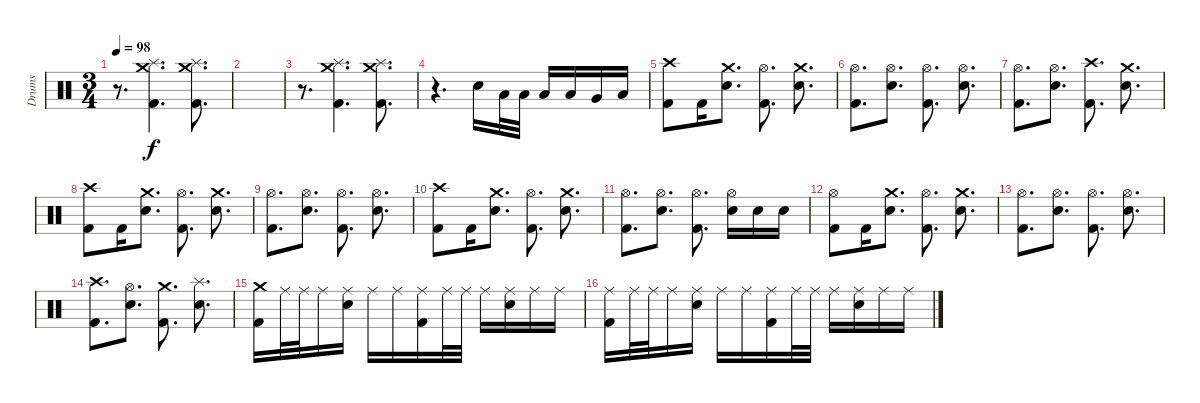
\track ("Drums" "Drums") {instrument percussion}
\staff {score}
\articulation defaults
\ts (3 4)
\tempo 98
\clef neutral
\ks c
r.8{d dy f} ("Crash medium (hit)" "Splash (hit)" "Kick (hit) 2").4{d} ("Crash medium (hit)" "Splash (hit)" "Kick (hit) 2").8{d} |
|
r.8{d} ("Crash medium (hit)" "Splash (hit)" "Kick (hit) 2").4{d} ("Crash medium (hit)" "Splash (hit)" "Kick (hit) 2").8{d} |
r.4{d} "Electric Snare (hit)".16 "Low Tom (hit)".32 "Low Tom (hit)".32 "Low Tom (hit)".16 "Low Tom (hit)".16 "Very Low Tom (hit)".16 "Low Floor Tom (hit)".16 |
("Crash high (hit)" "Kick (hit) 2").8 "Kick (hit) 2".16 ("Crash medium (hit)" "Electric Snare (hit)").8{d} ("Hi-Hat (open)" "Kick (hit) 2").8{d} ("Crash medium (hit)" "Electric Snare (hit)").8{d} |
("Hi-Hat (open)" "Kick (hit) 2").8{d} ("Hi-Hat (open)" "Electric Snare (hit)").8{d} ("Hi-Hat (open)" "Kick (hit) 2").8{d} ("Hi-Hat (open)" "Electric Snare (hit)").8{d} |
("Hi-Hat (open)" "Kick (hit) 2").8{d} ("Hi-Hat (open)" "Electric Snare (hit)").8{d} ("Crash high (hit)" "Kick (hit) 2").8{d} ("Crash medium (hit)" "Electric Snare (hit)").8{d} |
("Crash high (hit)" "Kick (hit) 2").8 "Kick (hit) 2".16 ("Crash medium (hit)" "Electric Snare (hit)").8{d} ("Hi-Hat (open)" "Kick (hit) 2").8{d} ("Crash medium (hit)" "Electric Snare (hit)").8{d} |
("Hi-Hat (open)" "Kick (hit) 2").8{d} ("Hi-Hat (open)" "Electric Snare (hit)").8{d} ("Hi-Hat (open)" "Kick (hit) 2").8{d} ("Hi-Hat (open)" "Electric Snare (hit)").8{d} |
("Crash high (hit)" "Kick (hit) 2").8 "Kick (hit) 2".16 ("Crash medium (hit)" "Electric Snare (hit)").8{d} ("Hi-Hat (open)" "Kick (hit) 2").8{d} ("Crash medium (hit)" "Electric Snare (hit)").8{d} |
("Hi-Hat (open)" "Kick (hit) 2").8{d} ("Hi-Hat (open)" "Electric Snare (hit)").8{d} ("Hi-Hat (open)" "Kick (hit) 2").8{d} ("Hi-Hat (open)" "Electric Snare (hit)").16 "Electric Snare (hit)".16 "Electric Snare (hit)".16 |
("Hi-Hat (open)" "Kick (hit) 2").8 "Kick (hit) 2".16 ("Crash medium (hit)" "Electric Snare (hit)").8{d} ("Hi-Hat (open)" "Kick (hit) 2").8{d} ("Crash medium (hit)" "Electric Snare (hit)").8{d} |
("Hi-Hat (open)" "Kick (hit) 2").8{d} ("Hi-Hat (open)" "Electric Snare (hit)").8{d} ("Hi-Hat (open)" "Kick (hit) 2").8{d} ("Hi-Hat (open)" "Electric Snare (hit)").8{d} |
("Crash high (hit)" "Kick (hit) 2").8{d} ("Hi-Hat (open)" "Electric Snare (hit)").8{d} ("Crash medium (hit)" "Kick (hit) 2").8{d} ("Splash (hit)" "Electric Snare (hit)").8{d} |
("Crash medium (hit)" "Kick (hit) 2").16 "Ride (middle)".32 "Ride (middle)".32 "Ride (middle)".16 ("Ride (middle)" "Electric Snare (hit)").16 "Ride (middle)".16 "Ride (middle)".16 ("Ride (middle)" "Kick (hit) 2").16 "Ride (middle)".32 "Ride (middle)".32 "Ride (middle)".16 ("Ride (middle)" "Electric Snare (hit)").16 "Ride (middle)".16 "Ride (middle)".16 |
("Ride (middle)" "Kick (hit) 2").16 "Ride (middle)".32 "Ride (middle)".32 "Ride (middle)".16 ("Ride (middle)" "Electric Snare (hit)").16 "Ride (middle)".16 "Ride (middle)".16 ("Ride (middle)" "Kick (hit) 2").16 "Ride (middle)".32 "Ride (middle)".32 "Ride (middle)".16 ("Ride (middle)" "Electric Snare (hit)").16 "Ride (middle)".16 "Ride (middle)".16
